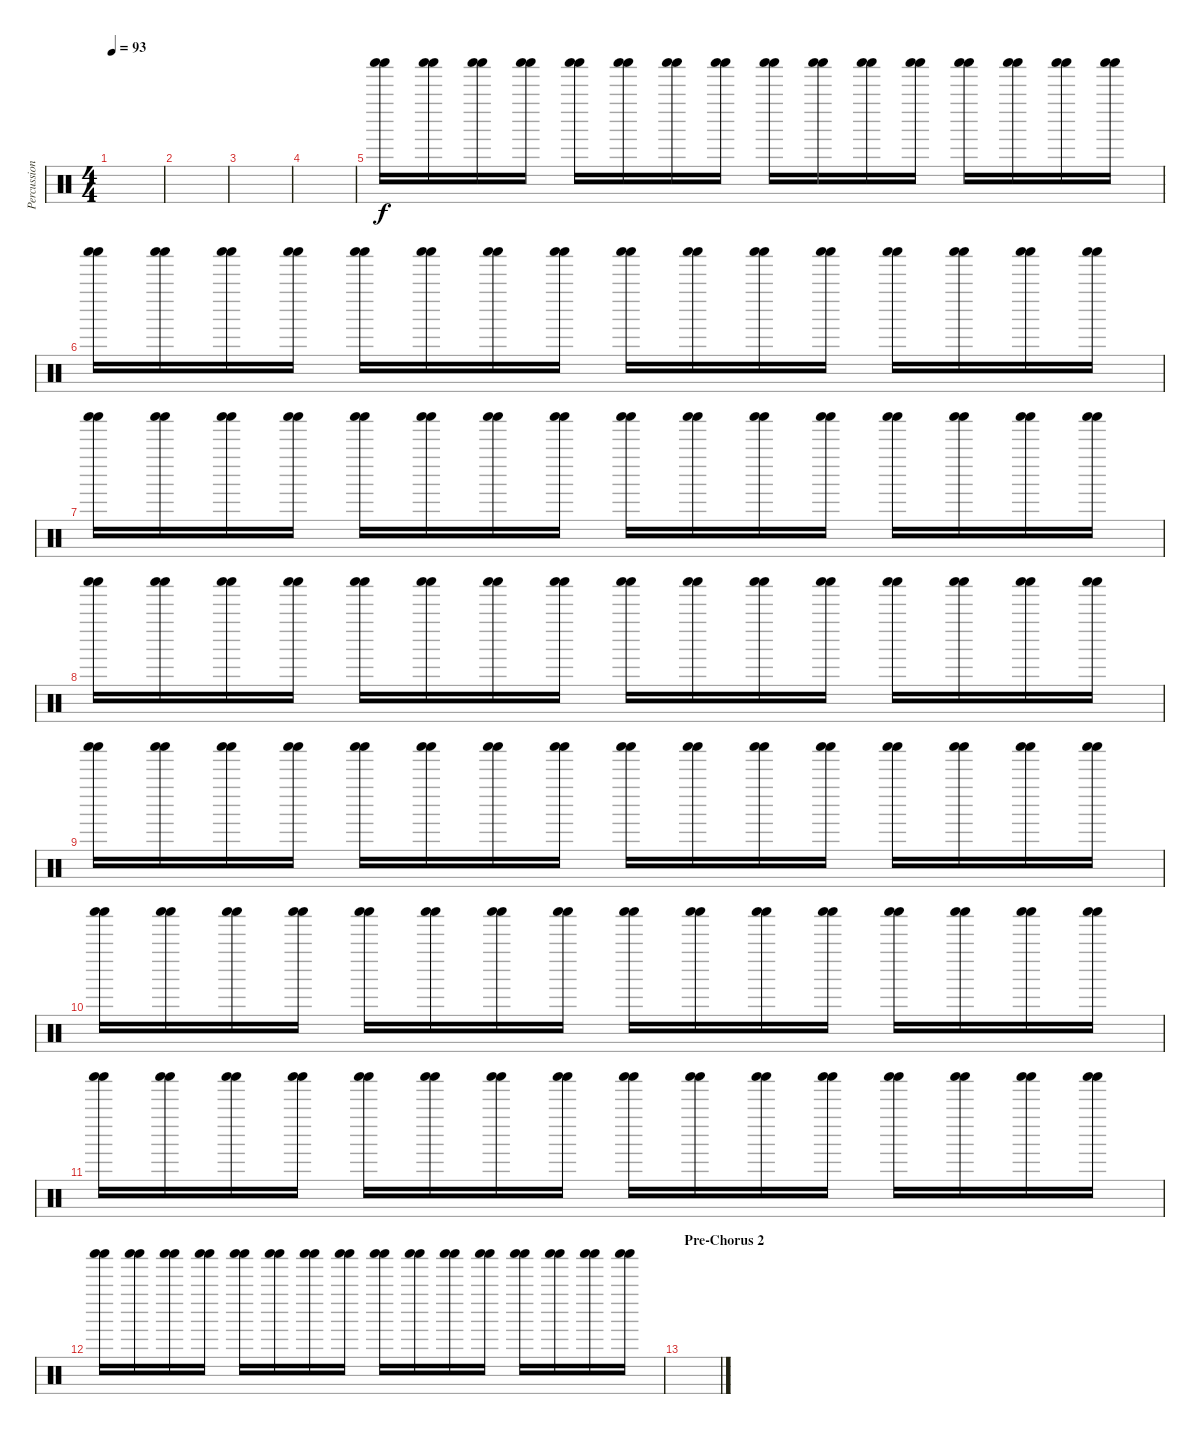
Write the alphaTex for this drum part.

\track ("Percussions" "Percussion") {instrument percussion}
\staff {score}
\articulation defaults
\ts (4 4)
\tempo 93
\clef neutral
\ks c
|
|
|
|
("Shaker (hit)" "Shaker (hit)").16 ("Shaker (hit)" "Shaker (hit)").16 ("Shaker (hit)" "Shaker (hit)").16 ("Shaker (hit)" "Shaker (hit)").16 ("Shaker (hit)" "Shaker (hit)").16 ("Shaker (hit)" "Shaker (hit)").16 ("Shaker (hit)" "Shaker (hit)").16 ("Shaker (hit)" "Shaker (hit)").16 ("Shaker (hit)" "Shaker (hit)").16 ("Shaker (hit)" "Shaker (hit)").16 ("Shaker (hit)" "Shaker (hit)").16 ("Shaker (hit)" "Shaker (hit)").16 ("Shaker (hit)" "Shaker (hit)").16 ("Shaker (hit)" "Shaker (hit)").16 ("Shaker (hit)" "Shaker (hit)").16 ("Shaker (hit)" "Shaker (hit)").16 |
("Shaker (hit)" "Shaker (hit)").16 ("Shaker (hit)" "Shaker (hit)").16 ("Shaker (hit)" "Shaker (hit)").16 ("Shaker (hit)" "Shaker (hit)").16 ("Shaker (hit)" "Shaker (hit)").16 ("Shaker (hit)" "Shaker (hit)").16 ("Shaker (hit)" "Shaker (hit)").16 ("Shaker (hit)" "Shaker (hit)").16 ("Shaker (hit)" "Shaker (hit)").16 ("Shaker (hit)" "Shaker (hit)").16 ("Shaker (hit)" "Shaker (hit)").16 ("Shaker (hit)" "Shaker (hit)").16 ("Shaker (hit)" "Shaker (hit)").16 ("Shaker (hit)" "Shaker (hit)").16 ("Shaker (hit)" "Shaker (hit)").16 ("Shaker (hit)" "Shaker (hit)").16 |
("Shaker (hit)" "Shaker (hit)").16 ("Shaker (hit)" "Shaker (hit)").16 ("Shaker (hit)" "Shaker (hit)").16 ("Shaker (hit)" "Shaker (hit)").16 ("Shaker (hit)" "Shaker (hit)").16 ("Shaker (hit)" "Shaker (hit)").16 ("Shaker (hit)" "Shaker (hit)").16 ("Shaker (hit)" "Shaker (hit)").16 ("Shaker (hit)" "Shaker (hit)").16 ("Shaker (hit)" "Shaker (hit)").16 ("Shaker (hit)" "Shaker (hit)").16 ("Shaker (hit)" "Shaker (hit)").16 ("Shaker (hit)" "Shaker (hit)").16 ("Shaker (hit)" "Shaker (hit)").16 ("Shaker (hit)" "Shaker (hit)").16 ("Shaker (hit)" "Shaker (hit)").16 |
("Shaker (hit)" "Shaker (hit)").16 ("Shaker (hit)" "Shaker (hit)").16 ("Shaker (hit)" "Shaker (hit)").16 ("Shaker (hit)" "Shaker (hit)").16 ("Shaker (hit)" "Shaker (hit)").16 ("Shaker (hit)" "Shaker (hit)").16 ("Shaker (hit)" "Shaker (hit)").16 ("Shaker (hit)" "Shaker (hit)").16 ("Shaker (hit)" "Shaker (hit)").16 ("Shaker (hit)" "Shaker (hit)").16 ("Shaker (hit)" "Shaker (hit)").16 ("Shaker (hit)" "Shaker (hit)").16 ("Shaker (hit)" "Shaker (hit)").16 ("Shaker (hit)" "Shaker (hit)").16 ("Shaker (hit)" "Shaker (hit)").16 ("Shaker (hit)" "Shaker (hit)").16 |
("Shaker (hit)" "Shaker (hit)").16 ("Shaker (hit)" "Shaker (hit)").16 ("Shaker (hit)" "Shaker (hit)").16 ("Shaker (hit)" "Shaker (hit)").16 ("Shaker (hit)" "Shaker (hit)").16 ("Shaker (hit)" "Shaker (hit)").16 ("Shaker (hit)" "Shaker (hit)").16 ("Shaker (hit)" "Shaker (hit)").16 ("Shaker (hit)" "Shaker (hit)").16 ("Shaker (hit)" "Shaker (hit)").16 ("Shaker (hit)" "Shaker (hit)").16 ("Shaker (hit)" "Shaker (hit)").16 ("Shaker (hit)" "Shaker (hit)").16 ("Shaker (hit)" "Shaker (hit)").16 ("Shaker (hit)" "Shaker (hit)").16 ("Shaker (hit)" "Shaker (hit)").16 |
("Shaker (hit)" "Shaker (hit)").16 ("Shaker (hit)" "Shaker (hit)").16 ("Shaker (hit)" "Shaker (hit)").16 ("Shaker (hit)" "Shaker (hit)").16 ("Shaker (hit)" "Shaker (hit)").16 ("Shaker (hit)" "Shaker (hit)").16 ("Shaker (hit)" "Shaker (hit)").16 ("Shaker (hit)" "Shaker (hit)").16 ("Shaker (hit)" "Shaker (hit)").16 ("Shaker (hit)" "Shaker (hit)").16 ("Shaker (hit)" "Shaker (hit)").16 ("Shaker (hit)" "Shaker (hit)").16 ("Shaker (hit)" "Shaker (hit)").16 ("Shaker (hit)" "Shaker (hit)").16 ("Shaker (hit)" "Shaker (hit)").16 ("Shaker (hit)" "Shaker (hit)").16 |
("Shaker (hit)" "Shaker (hit)").16 ("Shaker (hit)" "Shaker (hit)").16 ("Shaker (hit)" "Shaker (hit)").16 ("Shaker (hit)" "Shaker (hit)").16 ("Shaker (hit)" "Shaker (hit)").16 ("Shaker (hit)" "Shaker (hit)").16 ("Shaker (hit)" "Shaker (hit)").16 ("Shaker (hit)" "Shaker (hit)").16 ("Shaker (hit)" "Shaker (hit)").16 ("Shaker (hit)" "Shaker (hit)").16 ("Shaker (hit)" "Shaker (hit)").16 ("Shaker (hit)" "Shaker (hit)").16 ("Shaker (hit)" "Shaker (hit)").16 ("Shaker (hit)" "Shaker (hit)").16 ("Shaker (hit)" "Shaker (hit)").16 ("Shaker (hit)" "Shaker (hit)").16 |
("Shaker (hit)" "Shaker (hit)").16 ("Shaker (hit)" "Shaker (hit)").16 ("Shaker (hit)" "Shaker (hit)").16 ("Shaker (hit)" "Shaker (hit)").16 ("Shaker (hit)" "Shaker (hit)").16 ("Shaker (hit)" "Shaker (hit)").16 ("Shaker (hit)" "Shaker (hit)").16 ("Shaker (hit)" "Shaker (hit)").16 ("Shaker (hit)" "Shaker (hit)").16 ("Shaker (hit)" "Shaker (hit)").16 ("Shaker (hit)" "Shaker (hit)").16 ("Shaker (hit)" "Shaker (hit)").16 ("Shaker (hit)" "Shaker (hit)").16 ("Shaker (hit)" "Shaker (hit)").16 ("Shaker (hit)" "Shaker (hit)").16 ("Shaker (hit)" "Shaker (hit)").16 |
\section ("" "Pre-Chorus 2")
